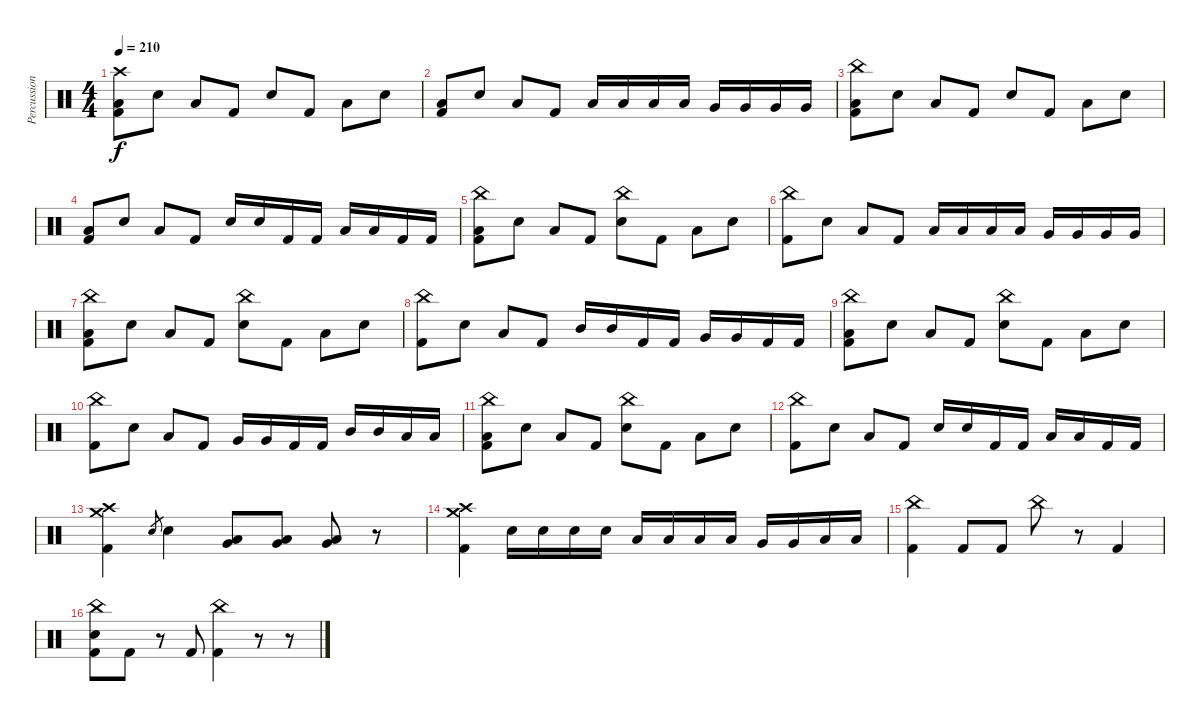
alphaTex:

\track ("Percussion" "Percussion") {instrument percussion}
\staff {score}
\articulation defaults
\ts (4 4)
\tempo 210
\clef neutral
\ks c
("Crash high (hit)" "Low Floor Tom (hit)" "Kick (hit) 2").8{dy f} "Electric Snare (hit)".8 "Low Floor Tom (hit)".8 "Kick (hit) 2".8 "Electric Snare (hit)".8 "Kick (hit) 2".8 "Low Floor Tom (hit)".8 "Electric Snare (hit)".8 |
("Low Floor Tom (hit)" "Kick (hit) 2").8 "Electric Snare (hit)".8 "Low Floor Tom (hit)".8 "Kick (hit) 2".8 "Low Tom (hit)".16 "Low Tom (hit)".16 "Low Tom (hit)".16 "Low Tom (hit)".16 "Very Low Tom (hit)".16 "Very Low Tom (hit)".16 "Very Low Tom (hit)".16 "Very Low Tom (hit)".16 |
("China (hit)" "Low Floor Tom (hit)" "Kick (hit) 2").8 "Electric Snare (hit)".8 "Low Floor Tom (hit)".8 "Kick (hit) 2".8 "Electric Snare (hit)".8 "Kick (hit) 2".8 "Low Floor Tom (hit)".8 "Electric Snare (hit)".8 |
("Low Floor Tom (hit)" "Kick (hit) 2").8 "Electric Snare (hit)".8 "Low Floor Tom (hit)".8 "Kick (hit) 2".8 "Electric Snare (hit)".16 "Electric Snare (hit)".16 "Kick (hit) 2".16 "Kick (hit) 2".16 "Low Floor Tom (hit)".16 "Low Floor Tom (hit)".16 "Kick (hit) 2".16 "Kick (hit) 2".16 |
("China (hit)" "Low Floor Tom (hit)" "Kick (hit) 2").8 "Electric Snare (hit)".8 "Low Floor Tom (hit)".8 "Kick (hit) 2".8 ("China (hit)" "Electric Snare (hit)").8 "Kick (hit) 2".8 "Low Floor Tom (hit)".8 "Electric Snare (hit)".8 |
("China (hit)" "Kick (hit) 2").8 "Electric Snare (hit)".8 "Low Floor Tom (hit)".8 "Kick (hit) 2".8 "Low Tom (hit)".16 "Low Tom (hit)".16 "Low Tom (hit)".16 "Low Tom (hit)".16 "Very Low Tom (hit)".16 "Very Low Tom (hit)".16 "Very Low Tom (hit)".16 "Very Low Tom (hit)".16 |
("China (hit)" "Low Floor Tom (hit)" "Kick (hit) 2").8 "Electric Snare (hit)".8 "Low Floor Tom (hit)".8 "Kick (hit) 2".8 ("China (hit)" "Electric Snare (hit)").8 "Kick (hit) 2".8 "Low Floor Tom (hit)".8 "Electric Snare (hit)".8 |
("China (hit)" "Kick (hit) 2").8 "Electric Snare (hit)".8 "Low Floor Tom (hit)".8 "Kick (hit) 2".8 "Mid Tom (hit)".16 "Mid Tom (hit)".16 "Kick (hit) 2".16 "Kick (hit) 2".16 "Very Low Tom (hit)".16 "Very Low Tom (hit)".16 "Kick (hit) 2".16 "Kick (hit) 2".16 |
("China (hit)" "Low Floor Tom (hit)" "Kick (hit) 2").8 "Electric Snare (hit)".8 "Low Floor Tom (hit)".8 "Kick (hit) 2".8 ("China (hit)" "Electric Snare (hit)").8 "Kick (hit) 2".8 "Low Floor Tom (hit)".8 "Electric Snare (hit)".8 |
("China (hit)" "Kick (hit) 2").8 "Electric Snare (hit)".8 "Low Floor Tom (hit)".8 "Kick (hit) 2".8 "Very Low Tom (hit)".16 "Very Low Tom (hit)".16 "Kick (hit) 2".16 "Kick (hit) 2".16 "Mid Tom (hit)".16 "Mid Tom (hit)".16 "Low Tom (hit)".16 "Low Tom (hit)".16 |
("China (hit)" "Low Floor Tom (hit)" "Kick (hit) 2").8 "Electric Snare (hit)".8 "Low Floor Tom (hit)".8 "Kick (hit) 2".8 ("China (hit)" "Electric Snare (hit)").8 "Kick (hit) 2".8 "Low Floor Tom (hit)".8 "Electric Snare (hit)".8 |
("China (hit)" "Kick (hit) 2").8 "Electric Snare (hit)".8 "Low Floor Tom (hit)".8 "Kick (hit) 2".8 "Electric Snare (hit)".16 "Electric Snare (hit)".16 "Kick (hit) 2".16 "Kick (hit) 2".16 "Low Floor Tom (hit)".16 "Low Floor Tom (hit)".16 "Kick (hit) 2".16 "Kick (hit) 2".16 |
("Crash medium (hit)" "Crash high (hit)" "Kick (hit) 2").4 "Electric Snare (hit)".8{gr} "Electric Snare (hit)".4 ("Low Tom (hit)" "Very Low Tom (hit)").8 ("Low Floor Tom (hit)" "Very Low Tom (hit)").8 ("Low Floor Tom (hit)" "Very Low Tom (hit)").8 r.8 |
("Crash high (hit)" "Crash medium (hit)" "Kick (hit) 2").4 "Electric Snare (hit)".16 "Electric Snare (hit)".16 "Electric Snare (hit)".16 "Electric Snare (hit)".16 "Low Tom (hit)".16 "Low Tom (hit)".16 "Low Tom (hit)".16 "Low Tom (hit)".16 "Very Low Tom (hit)".16 "Very Low Tom (hit)".16 "Low Floor Tom (hit)".16 "Low Floor Tom (hit)".16 |
("China (hit)" "Kick (hit) 2").4 "Kick (hit) 2".8 "Kick (hit) 2".8 "China (hit)".8 r.8 "Kick (hit) 2".4 |
("China (hit)" "Electric Snare (hit)" "Kick (hit) 2").8 "Kick (hit) 2".8 r.8 "Kick (hit) 2".8 ("China (hit)" "Kick (hit) 2").4 r.8 r.8
